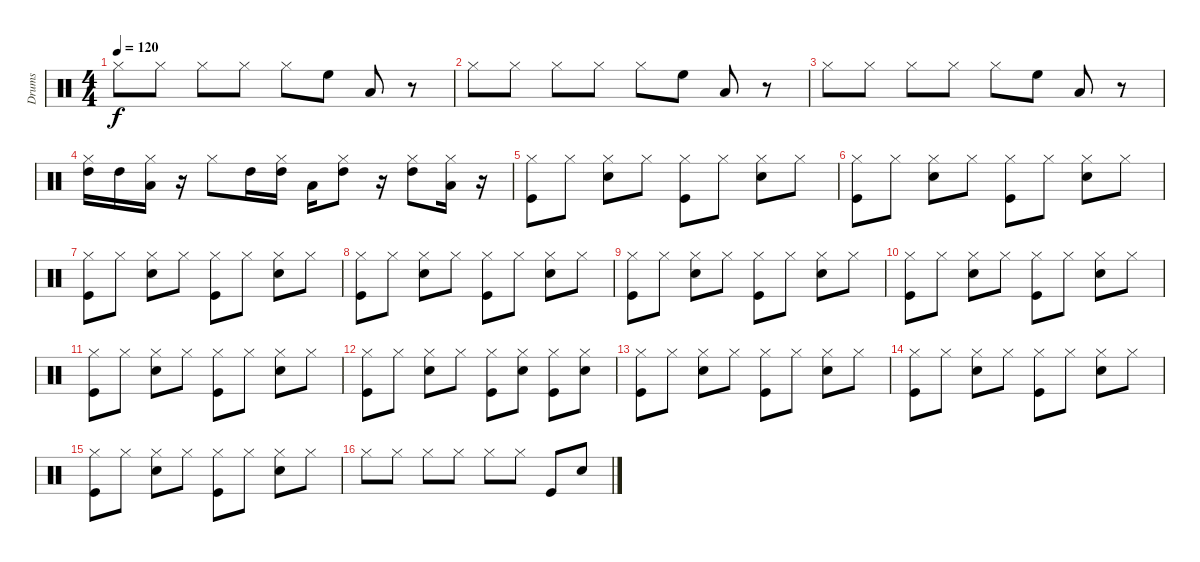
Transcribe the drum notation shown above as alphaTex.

\track ("Drums" "Drums") {instrument percussion}
\staff {score}
\articulation defaults
\ts (4 4)
\tempo 120
\clef neutral
\ks c "Hi-Hat (closed)".8{dy f} "Hi-Hat (closed)".8 "Hi-Hat (closed)".8 "Hi-Hat (closed)".8 "Hi-Hat (closed)".8 "High Floor Tom (hit)".8 "Low Tom (hit)".8
r.8 |
"Hi-Hat (closed)".8 "Hi-Hat (closed)".8 "Hi-Hat (closed)".8 "Hi-Hat (closed)".8 "Hi-Hat (closed)".8 "High Floor Tom (hit)".8 "Low Tom (hit)".8 r.8 |
"Hi-Hat (closed)".8 "Hi-Hat (closed)".8 "Hi-Hat (closed)".8 "Hi-Hat (closed)".8 "Hi-Hat (closed)".8 "High Floor Tom (hit)".8 "Low Tom (hit)".8 r.8 |
("High Tom (hit)" "Hi-Hat (closed)").16 "High Tom (hit)".16 ("Low Tom (hit)" "Hi-Hat (closed)").16 r.16 "Hi-Hat (closed)".8 "High Tom (hit)".16 ("High Tom (hit)" "Hi-Hat (closed)").16 "Low Tom (hit)".16 ("High Tom (hit)" "Hi-Hat (closed)").8 r.16 ("High Tom (hit)" "Hi-Hat (closed)").8 ("Low Tom (hit)" "Hi-Hat (closed)").16 r.16 |
("Kick (hit)" "Hi-Hat (closed)").8 "Hi-Hat (closed)".8 ("Snare (hit) 2" "Hi-Hat (closed)").8 "Hi-Hat (closed)".8 ("Kick (hit)" "Hi-Hat (closed)").8 "Hi-Hat (closed)".8 ("Snare (hit) 2" "Hi-Hat (closed)").8 "Hi-Hat (closed)".8 |
("Kick (hit)" "Hi-Hat (closed)").8 "Hi-Hat (closed)".8 ("Snare (hit) 2" "Hi-Hat (closed)").8 "Hi-Hat (closed)".8 ("Kick (hit)" "Hi-Hat (closed)").8 "Hi-Hat (closed)".8 ("Snare (hit) 2" "Hi-Hat (closed)").8 "Hi-Hat (closed)".8 |
("Kick (hit)" "Hi-Hat (closed)").8 "Hi-Hat (closed)".8 ("Snare (hit) 2" "Hi-Hat (closed)").8 "Hi-Hat (closed)".8 ("Kick (hit)" "Hi-Hat (closed)").8 "Hi-Hat (closed)".8 ("Snare (hit) 2" "Hi-Hat (closed)").8 "Hi-Hat (closed)".8 |
("Kick (hit)" "Hi-Hat (closed)").8 "Hi-Hat (closed)".8 ("Snare (hit) 2" "Hi-Hat (closed)").8 "Hi-Hat (closed)".8 ("Kick (hit)" "Hi-Hat (closed)").8 "Hi-Hat (closed)".8 ("Snare (hit) 2" "Hi-Hat (closed)").8 "Hi-Hat (closed)".8 |
("Kick (hit)" "Hi-Hat (closed)").8 "Hi-Hat (closed)".8 ("Snare (hit) 2" "Hi-Hat (closed)").8 "Hi-Hat (closed)".8 ("Kick (hit)" "Hi-Hat (closed)").8 "Hi-Hat (closed)".8 ("Snare (hit) 2" "Hi-Hat (closed)").8 "Hi-Hat (closed)".8 |
("Kick (hit)" "Hi-Hat (closed)").8 "Hi-Hat (closed)".8 ("Snare (hit) 2" "Hi-Hat (closed)").8 "Hi-Hat (closed)".8 ("Kick (hit)" "Hi-Hat (closed)").8 "Hi-Hat (closed)".8 ("Snare (hit) 2" "Hi-Hat (closed)").8 "Hi-Hat (closed)".8 |
("Kick (hit)" "Hi-Hat (closed)").8 "Hi-Hat (closed)".8 ("Snare (hit) 2" "Hi-Hat (closed)").8 "Hi-Hat (closed)".8 ("Kick (hit)" "Hi-Hat (closed)").8 "Hi-Hat (closed)".8 ("Snare (hit) 2" "Hi-Hat (closed)").8 "Hi-Hat (closed)".8 |
("Kick (hit)" "Hi-Hat (closed)").8 "Hi-Hat (closed)".8 ("Snare (hit) 2" "Hi-Hat (closed)").8 "Hi-Hat (closed)".8 ("Kick (hit)" "Hi-Hat (closed)").8 ("Snare (hit) 2" "Hi-Hat (closed)").8 ("Kick (hit)" "Hi-Hat (closed)").8 ("Snare (hit) 2" "Hi-Hat (closed)").8 |
("Kick (hit)" "Hi-Hat (closed)").8 "Hi-Hat (closed)".8 ("Snare (hit) 2" "Hi-Hat (closed)").8 "Hi-Hat (closed)".8 ("Kick (hit)" "Hi-Hat (closed)").8 "Hi-Hat (closed)".8 ("Snare (hit) 2" "Hi-Hat (closed)").8 "Hi-Hat (closed)".8 |
("Kick (hit)" "Hi-Hat (closed)").8 "Hi-Hat (closed)".8 ("Snare (hit) 2" "Hi-Hat (closed)").8 "Hi-Hat (closed)".8 ("Kick (hit)" "Hi-Hat (closed)").8 "Hi-Hat (closed)".8 ("Snare (hit) 2" "Hi-Hat (closed)").8 "Hi-Hat (closed)".8 |
("Kick (hit)" "Hi-Hat (closed)").8 "Hi-Hat (closed)".8 ("Snare (hit) 2" "Hi-Hat (closed)").8 "Hi-Hat (closed)".8 ("Kick (hit)" "Hi-Hat (closed)").8 "Hi-Hat (closed)".8 ("Snare (hit) 2" "Hi-Hat (closed)").8 "Hi-Hat (closed)".8 |
"Hi-Hat (closed)".8 "Hi-Hat (closed)".8 "Hi-Hat (closed)".8 "Hi-Hat (closed)".8 "Hi-Hat (closed)".8 "Hi-Hat (closed)".8 "Kick (hit)".8 "Electric Snare (hit)".8
